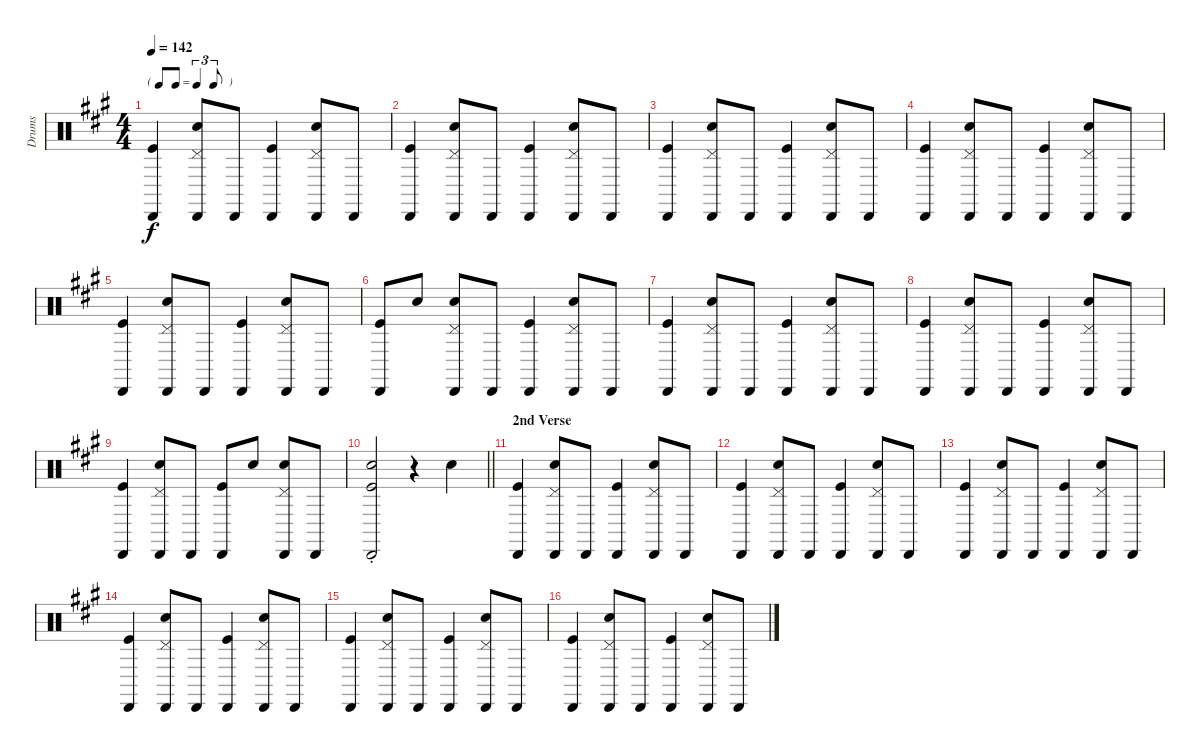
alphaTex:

\track ("Drums" "Drums") {instrument percussion}
\staff {score}
\articulation defaults
\ts (4 4)
\tf triplet8th
\tempo 142
\clef neutral
\ks a
("Cabasa (hit)" "Kick (hit)").4{dy f} ("Pedal Hi-Hat (hit)" "Cabasa (hit)" "Snare (hit) 2").8 "Cabasa (hit)".8 ("Cabasa (hit)" "Kick (hit)").4 ("Pedal Hi-Hat (hit)" "Cabasa (hit)" "Snare (hit) 2").8 "Cabasa (hit)".8 |
("Cabasa (hit)" "Kick (hit)").4 ("Pedal Hi-Hat (hit)" "Cabasa (hit)" "Snare (hit) 2").8 "Cabasa (hit)".8 ("Cabasa (hit)" "Kick (hit)").4 ("Pedal Hi-Hat (hit)" "Cabasa (hit)" "Snare (hit) 2").8 "Cabasa (hit)".8 |
("Cabasa (hit)" "Kick (hit)").4 ("Pedal Hi-Hat (hit)" "Cabasa (hit)" "Snare (hit) 2").8 "Cabasa (hit)".8 ("Cabasa (hit)" "Kick (hit)").4 ("Pedal Hi-Hat (hit)" "Cabasa (hit)" "Snare (hit) 2").8 "Cabasa (hit)".8 |
("Cabasa (hit)" "Kick (hit)").4 ("Pedal Hi-Hat (hit)" "Cabasa (hit)" "Snare (hit) 2").8 "Cabasa (hit)".8 ("Cabasa (hit)" "Kick (hit)").4 ("Pedal Hi-Hat (hit)" "Cabasa (hit)" "Snare (hit) 2").8 "Cabasa (hit)".8 |
("Cabasa (hit)" "Kick (hit)").4 ("Pedal Hi-Hat (hit)" "Cabasa (hit)" "Snare (hit) 2").8 "Cabasa (hit)".8 ("Cabasa (hit)" "Kick (hit)").4 ("Pedal Hi-Hat (hit)" "Cabasa (hit)" "Snare (hit) 2").8 "Cabasa (hit)".8 |
("Cabasa (hit)" "Kick (hit)").8 "Snare (hit) 2".8 ("Pedal Hi-Hat (hit)" "Cabasa (hit)" "Snare (hit) 2").8 "Cabasa (hit)".8 ("Cabasa (hit)" "Kick (hit)").4 ("Pedal Hi-Hat (hit)" "Cabasa (hit)" "Snare (hit) 2").8 "Cabasa (hit)".8 |
("Cabasa (hit)" "Kick (hit)").4 ("Pedal Hi-Hat (hit)" "Cabasa (hit)" "Snare (hit) 2").8 "Cabasa (hit)".8 ("Cabasa (hit)" "Kick (hit)").4 ("Pedal Hi-Hat (hit)" "Cabasa (hit)" "Snare (hit) 2").8 "Cabasa (hit)".8 |
("Cabasa (hit)" "Kick (hit)").4 ("Pedal Hi-Hat (hit)" "Cabasa (hit)" "Snare (hit) 2").8 "Cabasa (hit)".8 ("Cabasa (hit)" "Kick (hit)").4 ("Pedal Hi-Hat (hit)" "Cabasa (hit)" "Snare (hit) 2").8 "Cabasa (hit)".8 |
("Cabasa (hit)" "Kick (hit)").4 ("Pedal Hi-Hat (hit)" "Cabasa (hit)" "Snare (hit) 2").8 "Cabasa (hit)".8 ("Cabasa (hit)" "Kick (hit)").8 "Snare (hit) 2".8 ("Pedal Hi-Hat (hit)" "Cabasa (hit)" "Snare (hit) 2").8 "Cabasa (hit)".8 |
\barLineRight lightlight
("Cabasa (hit)"{st} "Snare (hit) 2" "Kick (hit)"{st}).2 r.4 "Snare (hit) 2".4 |
\section ("" "2nd Verse")
("Cabasa (hit)" "Kick (hit)").4 ("Pedal Hi-Hat (hit)" "Cabasa (hit)" "Snare (hit) 2").8 "Cabasa (hit)".8 ("Cabasa (hit)" "Kick (hit)").4 ("Pedal Hi-Hat (hit)" "Cabasa (hit)" "Snare (hit) 2").8 "Cabasa (hit)".8 |
("Cabasa (hit)" "Kick (hit)").4 ("Pedal Hi-Hat (hit)" "Cabasa (hit)" "Snare (hit) 2").8 "Cabasa (hit)".8 ("Cabasa (hit)" "Kick (hit)").4 ("Pedal Hi-Hat (hit)" "Cabasa (hit)" "Snare (hit) 2").8 "Cabasa (hit)".8 |
("Cabasa (hit)" "Kick (hit)").4 ("Pedal Hi-Hat (hit)" "Cabasa (hit)" "Snare (hit) 2").8 "Cabasa (hit)".8 ("Cabasa (hit)" "Kick (hit)").4 ("Pedal Hi-Hat (hit)" "Cabasa (hit)" "Snare (hit) 2").8 "Cabasa (hit)".8 |
("Cabasa (hit)" "Kick (hit)").4 ("Pedal Hi-Hat (hit)" "Cabasa (hit)" "Snare (hit) 2").8 "Cabasa (hit)".8 ("Cabasa (hit)" "Kick (hit)").4 ("Pedal Hi-Hat (hit)" "Cabasa (hit)" "Snare (hit) 2").8 "Cabasa (hit)".8 |
("Cabasa (hit)" "Kick (hit)").4 ("Pedal Hi-Hat (hit)" "Cabasa (hit)" "Snare (hit) 2").8 "Cabasa (hit)".8 ("Cabasa (hit)" "Kick (hit)").4 ("Pedal Hi-Hat (hit)" "Cabasa (hit)" "Snare (hit) 2").8 "Cabasa (hit)".8 |
("Cabasa (hit)" "Kick (hit)").4 ("Pedal Hi-Hat (hit)" "Cabasa (hit)" "Snare (hit) 2").8 "Cabasa (hit)".8 ("Cabasa (hit)" "Kick (hit)").4 ("Pedal Hi-Hat (hit)" "Cabasa (hit)" "Snare (hit) 2").8 "Cabasa (hit)".8
